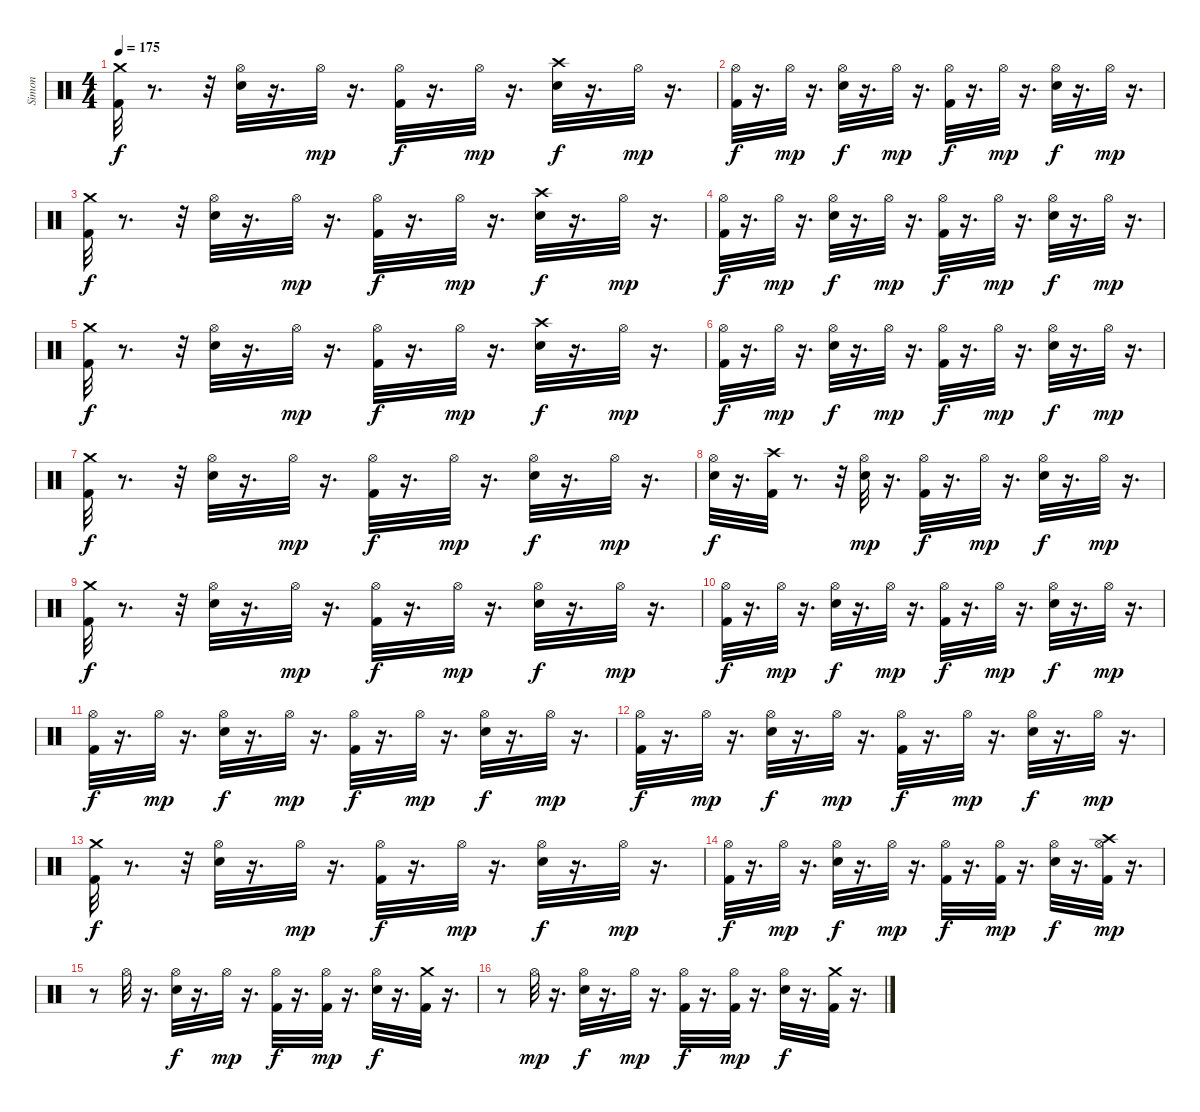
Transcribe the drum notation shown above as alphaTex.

\track ("Simon" "Simon") {instrument percussion}
\staff {score}
\articulation defaults
\ts (4 4)
\tempo 175
\clef neutral
\ks c
("Crash medium (hit)" "Kick (hit) 2").32{dy f} r.8{d} r.32 ("Hi-Hat (open)" "Electric Snare (hit)").32 r.16{d} "Hi-Hat (open)".32{dy mp} r.16{d} ("Hi-Hat (open)" "Kick (hit) 2").32{dy f} r.16{d} "Hi-Hat (open)".32{dy mp} r.16{d} ("Crash high (hit)" "Electric Snare (hit)").32{dy f} r.16{d} "Hi-Hat (open)".32{dy mp} r.16{d} |
("Hi-Hat (open)" "Kick (hit) 2").32{dy f} r.16{d} "Hi-Hat (open)".32{dy mp} r.16{d} ("Hi-Hat (open)" "Electric Snare (hit)").32{dy f} r.16{d} "Hi-Hat (open)".32{dy mp} r.16{d} ("Hi-Hat (open)" "Kick (hit) 2").32{dy f} r.16{d} "Hi-Hat (open)".32{dy mp} r.16{d} ("Hi-Hat (open)" "Electric Snare (hit)").32{dy f} r.16{d} "Hi-Hat (open)".32{dy mp} r.16{d} |
("Crash medium (hit)" "Kick (hit) 2").32{dy f} r.8{d} r.32 ("Hi-Hat (open)" "Electric Snare (hit)").32 r.16{d} "Hi-Hat (open)".32{dy mp} r.16{d} ("Hi-Hat (open)" "Kick (hit) 2").32{dy f} r.16{d} "Hi-Hat (open)".32{dy mp} r.16{d} ("Crash high (hit)" "Electric Snare (hit)").32{dy f} r.16{d} "Hi-Hat (open)".32{dy mp} r.16{d} |
("Hi-Hat (open)" "Kick (hit) 2").32{dy f} r.16{d} "Hi-Hat (open)".32{dy mp} r.16{d} ("Hi-Hat (open)" "Electric Snare (hit)").32{dy f} r.16{d} "Hi-Hat (open)".32{dy mp} r.16{d} ("Hi-Hat (open)" "Kick (hit) 2").32{dy f} r.16{d} "Hi-Hat (open)".32{dy mp} r.16{d} ("Hi-Hat (open)" "Electric Snare (hit)").32{dy f} r.16{d} "Hi-Hat (open)".32{dy mp} r.16{d} |
("Crash medium (hit)" "Kick (hit) 2").32{dy f} r.8{d} r.32 ("Hi-Hat (open)" "Electric Snare (hit)").32 r.16{d} "Hi-Hat (open)".32{dy mp} r.16{d} ("Hi-Hat (open)" "Kick (hit) 2").32{dy f} r.16{d} "Hi-Hat (open)".32{dy mp} r.16{d} ("Crash high (hit)" "Electric Snare (hit)").32{dy f} r.16{d} "Hi-Hat (open)".32{dy mp} r.16{d} |
("Hi-Hat (open)" "Kick (hit) 2").32{dy f} r.16{d} "Hi-Hat (open)".32{dy mp} r.16{d} ("Hi-Hat (open)" "Electric Snare (hit)").32{dy f} r.16{d} "Hi-Hat (open)".32{dy mp} r.16{d} ("Hi-Hat (open)" "Kick (hit) 2").32{dy f} r.16{d} "Hi-Hat (open)".32{dy mp} r.16{d} ("Hi-Hat (open)" "Electric Snare (hit)").32{dy f} r.16{d} "Hi-Hat (open)".32{dy mp} r.16{d} |
("Crash medium (hit)" "Kick (hit) 2").32{dy f} r.8{d} r.32 ("Hi-Hat (open)" "Electric Snare (hit)").32 r.16{d} "Hi-Hat (open)".32{dy mp} r.16{d} ("Hi-Hat (open)" "Kick (hit) 2").32{dy f} r.16{d} "Hi-Hat (open)".32{dy mp} r.16{d} ("Hi-Hat (open)" "Electric Snare (hit)").32{dy f} r.16{d} "Hi-Hat (open)".32{dy mp} r.16{d} |
("Electric Snare (hit)" "Hi-Hat (open)").32{dy f} r.16{d} ("Crash high (hit)" "Kick (hit) 2").32 r.8{d} r.32 ("Electric Snare (hit)" "Hi-Hat (open)").32{dy mp} r.16{d} ("Kick (hit) 2" "Hi-Hat (open)").32{dy f} r.16{d} "Hi-Hat (open)".32{dy mp} r.16{d} ("Hi-Hat (open)" "Electric Snare (hit)").32{dy f} r.16{d} "Hi-Hat (open)".32{dy mp} r.16{d} |
("Crash medium (hit)" "Kick (hit) 2").32{dy f} r.8{d} r.32 ("Hi-Hat (open)" "Electric Snare (hit)").32 r.16{d} "Hi-Hat (open)".32{dy mp} r.16{d} ("Hi-Hat (open)" "Kick (hit) 2").32{dy f} r.16{d} "Hi-Hat (open)".32{dy mp} r.16{d} ("Hi-Hat (open)" "Electric Snare (hit)").32{dy f} r.16{d} "Hi-Hat (open)".32{dy mp} r.16{d} |
("Hi-Hat (open)" "Kick (hit) 2").32{dy f} r.16{d} "Hi-Hat (open)".32{dy mp} r.16{d} ("Hi-Hat (open)" "Electric Snare (hit)").32{dy f} r.16{d} "Hi-Hat (open)".32{dy mp} r.16{d} ("Hi-Hat (open)" "Kick (hit) 2").32{dy f} r.16{d} "Hi-Hat (open)".32{dy mp} r.16{d} ("Hi-Hat (open)" "Electric Snare (hit)").32{dy f} r.16{d} "Hi-Hat (open)".32{dy mp} r.16{d} |
("Hi-Hat (open)" "Kick (hit) 2").32{dy f} r.16{d} "Hi-Hat (open)".32{dy mp} r.16{d} ("Hi-Hat (open)" "Electric Snare (hit)").32{dy f} r.16{d} "Hi-Hat (open)".32{dy mp} r.16{d} ("Hi-Hat (open)" "Kick (hit) 2").32{dy f} r.16{d} "Hi-Hat (open)".32{dy mp} r.16{d} ("Hi-Hat (open)" "Electric Snare (hit)").32{dy f} r.16{d} "Hi-Hat (open)".32{dy mp} r.16{d} |
("Hi-Hat (open)" "Kick (hit) 2").32{dy f} r.16{d} "Hi-Hat (open)".32{dy mp} r.16{d} ("Hi-Hat (open)" "Electric Snare (hit)").32{dy f} r.16{d} "Hi-Hat (open)".32{dy mp} r.16{d} ("Hi-Hat (open)" "Kick (hit) 2").32{dy f} r.16{d} "Hi-Hat (open)".32{dy mp} r.16{d} ("Hi-Hat (open)" "Electric Snare (hit)").32{dy f} r.16{d} "Hi-Hat (open)".32{dy mp} r.16{d} |
("Crash medium (hit)" "Kick (hit) 2").32{dy f} r.8{d} r.32 ("Hi-Hat (open)" "Electric Snare (hit)").32 r.16{d} "Hi-Hat (open)".32{dy mp} r.16{d} ("Hi-Hat (open)" "Kick (hit) 2").32{dy f} r.16{d} "Hi-Hat (open)".32{dy mp} r.16{d} ("Hi-Hat (open)" "Electric Snare (hit)").32{dy f} r.16{d} "Hi-Hat (open)".32{dy mp} r.16{d} |
("Hi-Hat (open)" "Kick (hit) 2").32{dy f} r.16{d} "Hi-Hat (open)".32{dy mp} r.16{d} ("Hi-Hat (open)" "Electric Snare (hit)").32{dy f} r.16{d} "Hi-Hat (open)".32{dy mp} r.16{d} ("Hi-Hat (open)" "Kick (hit) 2").32{dy f} r.16{d} ("Kick (hit) 2" "Hi-Hat (open)").32{dy mp} r.16{d} ("Hi-Hat (open)" "Electric Snare (hit)").32{dy f} r.16{d} ("Hi-Hat (open)" "Crash high (hit)" "Kick (hit) 2").32{dy mp} r.16{d} |
r.8 "Hi-Hat (open)".32 r.16{d} ("Hi-Hat (open)" "Electric Snare (hit)").32{dy f} r.16{d} "Hi-Hat (open)".32{dy mp} r.16{d} ("Hi-Hat (open)" "Kick (hit) 2").32{dy f} r.16{d} ("Hi-Hat (open)" "Kick (hit) 2").32{dy mp} r.16{d} ("Hi-Hat (open)" "Electric Snare (hit)").32{dy f} r.16{d} ("Crash medium (hit)" "Kick (hit) 2").32 r.16{d} |
r.8 "Hi-Hat (open)".32{dy mp} r.16{d} ("Hi-Hat (open)" "Electric Snare (hit)").32{dy f} r.16{d} "Hi-Hat (open)".32{dy mp} r.16{d} ("Hi-Hat (open)" "Kick (hit) 2").32{dy f} r.16{d} ("Hi-Hat (open)" "Kick (hit) 2").32{dy mp} r.16{d} ("Hi-Hat (open)" "Electric Snare (hit)").32{dy f} r.16{d} ("Crash medium (hit)" "Kick (hit) 2").32 r.16{d}
